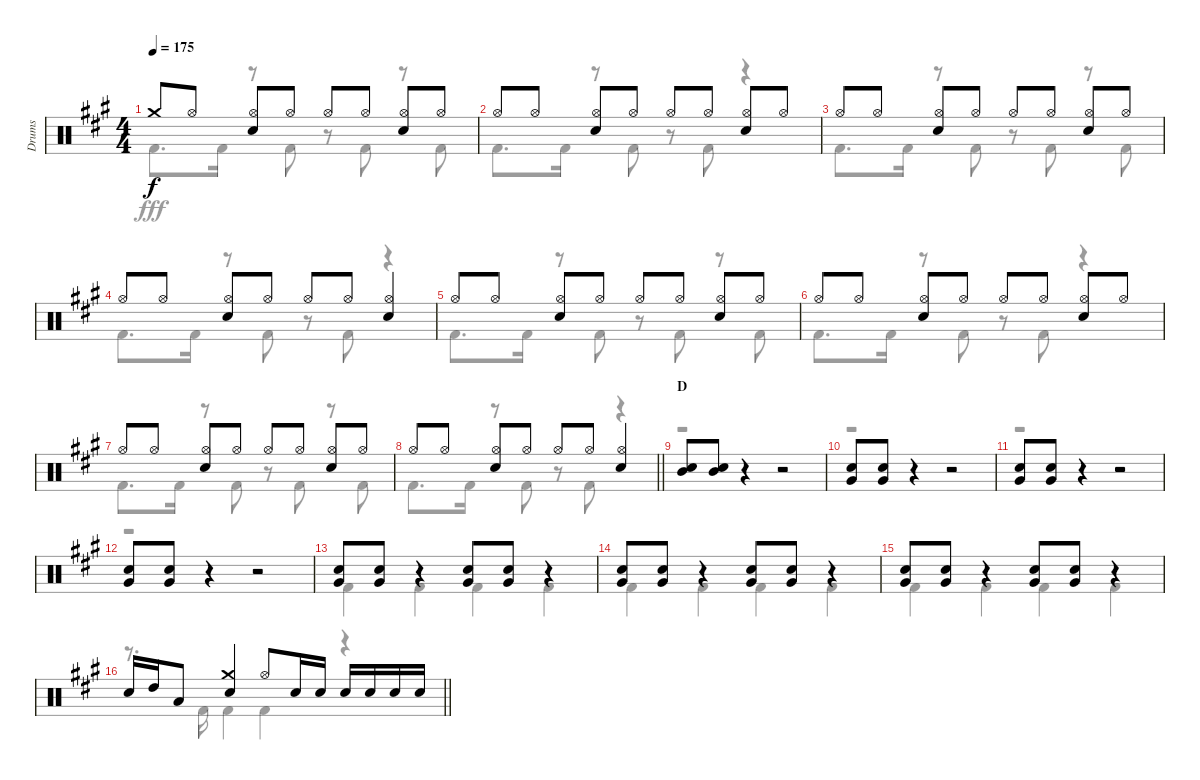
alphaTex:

\track ("Drums" "Drums") {instrument percussion}
\staff {score}
\articulation defaults
\voice
\ts (4 4)
\tempo 175
\clef neutral
\ks a "Crash medium (hit)".8{dy f} "Hi-Hat (open)".8
("Hi-Hat (open)" "Snare (hit) 2").8 "Hi-Hat (open)".8 "Hi-Hat (open)".8 "Hi-Hat (open)".8 ("Hi-Hat (open)" "Snare (hit) 2").8 "Hi-Hat (open)".8 |
"Hi-Hat (open)".8 "Hi-Hat (open)".8 ("Hi-Hat (open)" "Snare (hit) 2").8 "Hi-Hat (open)".8 "Hi-Hat (open)".8 "Hi-Hat (open)".8 ("Hi-Hat (open)" "Snare (hit) 2").8 "Hi-Hat (open)".8 |
"Hi-Hat (open)".8 "Hi-Hat (open)".8 ("Hi-Hat (open)" "Snare (hit) 2").8 "Hi-Hat (open)".8 "Hi-Hat (open)".8 "Hi-Hat (open)".8 ("Hi-Hat (open)" "Snare (hit) 2").8 "Hi-Hat (open)".8 |
"Hi-Hat (open)".8 "Hi-Hat (open)".8 ("Hi-Hat (open)" "Snare (hit) 2").8 "Hi-Hat (open)".8 "Hi-Hat (open)".8 "Hi-Hat (open)".8 ("Hi-Hat (open)" "Snare (hit) 2").4 |
"Hi-Hat (open)".8 "Hi-Hat (open)".8 ("Hi-Hat (open)" "Snare (hit) 2").8 "Hi-Hat (open)".8 "Hi-Hat (open)".8 "Hi-Hat (open)".8 ("Hi-Hat (open)" "Snare (hit) 2").8 "Hi-Hat (open)".8 |
"Hi-Hat (open)".8 "Hi-Hat (open)".8 ("Hi-Hat (open)" "Snare (hit) 2").8 "Hi-Hat (open)".8 "Hi-Hat (open)".8 "Hi-Hat (open)".8 ("Hi-Hat (open)" "Snare (hit) 2").8 "Hi-Hat (open)".8 |
"Hi-Hat (open)".8 "Hi-Hat (open)".8 ("Hi-Hat (open)" "Snare (hit) 2").8 "Hi-Hat (open)".8 "Hi-Hat (open)".8 "Hi-Hat (open)".8 ("Hi-Hat (open)" "Snare (hit) 2").8 "Hi-Hat (open)".8 |
\barLineRight lightlight "Hi-Hat (open)".8 "Hi-Hat (open)".8
("Hi-Hat (open)" "Snare (hit) 2").8 "Hi-Hat (open)".8 "Hi-Hat (open)".8 "Hi-Hat (open)".8 ("Hi-Hat (open)" "Snare (hit) 2").4 |
\section ("" "D")
("Mid Tom (hit)" "Snare (hit) 2").8 ("Mid Tom (hit)" "Snare (hit) 2").8 r.4 r.2 |
("Snare (hit) 2" "Very Low Tom (hit)").8 ("Snare (hit) 2" "Very Low Tom (hit)").8 r.4 r.2 |
("Snare (hit) 2" "Very Low Tom (hit)").8 ("Snare (hit) 2" "Very Low Tom (hit)").8 r.4 r.2 |
("Snare (hit) 2" "Very Low Tom (hit)").8 ("Snare (hit) 2" "Very Low Tom (hit)").8 r.4 r.2 |
("Snare (hit) 2" "Very Low Tom (hit)").8 ("Snare (hit) 2" "Very Low Tom (hit)").8 r.4 ("Snare (hit) 2" "Very Low Tom (hit)").8 ("Snare (hit) 2" "Very Low Tom (hit)").8 r.4 |
("Snare (hit) 2" "Very Low Tom (hit)").8 ("Snare (hit) 2" "Very Low Tom (hit)").8 r.4 ("Snare (hit) 2" "Very Low Tom (hit)").8 ("Snare (hit) 2" "Very Low Tom (hit)").8 r.4 |
("Snare (hit) 2" "Very Low Tom (hit)").8 ("Snare (hit) 2" "Very Low Tom (hit)").8 r.4 ("Snare (hit) 2" "Very Low Tom (hit)").8 ("Snare (hit) 2" "Very Low Tom (hit)").8 r.4 |
\barLineRight lightlight "Snare (hit) 2".16 "High Tom (hit)".16 "Low Tom (hit)".8
("Crash medium (hit)" "Snare (hit) 2").4 "Hi-Hat (open)".8 "Snare (hit) 2".16 "Snare (hit) 2".16 "Snare (hit) 2".16 "Snare (hit) 2".16 "Snare (hit) 2".16 "Snare (hit) 2".16
\voice
\clef neutral
\ottava regular
\simile none
\ks a "Kick (hit) 2".8{d dy fff} "Kick (hit) 2".16
r.8 "Kick (hit) 2".8 r.8 "Kick (hit) 2".8 r.8 "Kick (hit) 2".8 |
"Kick (hit) 2".8{d} "Kick (hit) 2".16 r.8 "Kick (hit) 2".8 r.8 "Kick (hit) 2".8 r.4 |
"Kick (hit) 2".8{d} "Kick (hit) 2".16 r.8 "Kick (hit) 2".8 r.8 "Kick (hit) 2".8 r.8 "Kick (hit) 2".8 |
"Kick (hit) 2".8{d} "Kick (hit) 2".16 r.8 "Kick (hit) 2".8 r.8 "Kick (hit) 2".8 r.4 |
"Kick (hit) 2".8{d} "Kick (hit) 2".16 r.8 "Kick (hit) 2".8 r.8 "Kick (hit) 2".8 r.8 "Kick (hit) 2".8 |
"Kick (hit) 2".8{d} "Kick (hit) 2".16 r.8 "Kick (hit) 2".8 r.8 "Kick (hit) 2".8 r.4 |
"Kick (hit) 2".8{d} "Kick (hit) 2".16 r.8 "Kick (hit) 2".8 r.8 "Kick (hit) 2".8 r.8 "Kick (hit) 2".8 |
\barLineRight lightlight "Kick (hit) 2".8{d} "Kick (hit) 2".16
r.8 "Kick (hit) 2".8 r.8 "Kick (hit) 2".8 r.4 |
r.1 |
r.1 |
r.1 |
r.1 |
"Kick (hit) 2".4 "Kick (hit) 2".4 "Kick (hit) 2".4 "Kick (hit) 2".4 |
"Kick (hit) 2".4 "Kick (hit) 2".4 "Kick (hit) 2".4 "Kick (hit) 2".4 |
"Kick (hit) 2".4 "Kick (hit) 2".4 "Kick (hit) 2".4 "Kick (hit) 2".4 |
\barLineRight lightlight
r.8{d} "Kick (hit) 2".16 "Kick (hit) 2".4 "Kick (hit) 2".4 r.4
